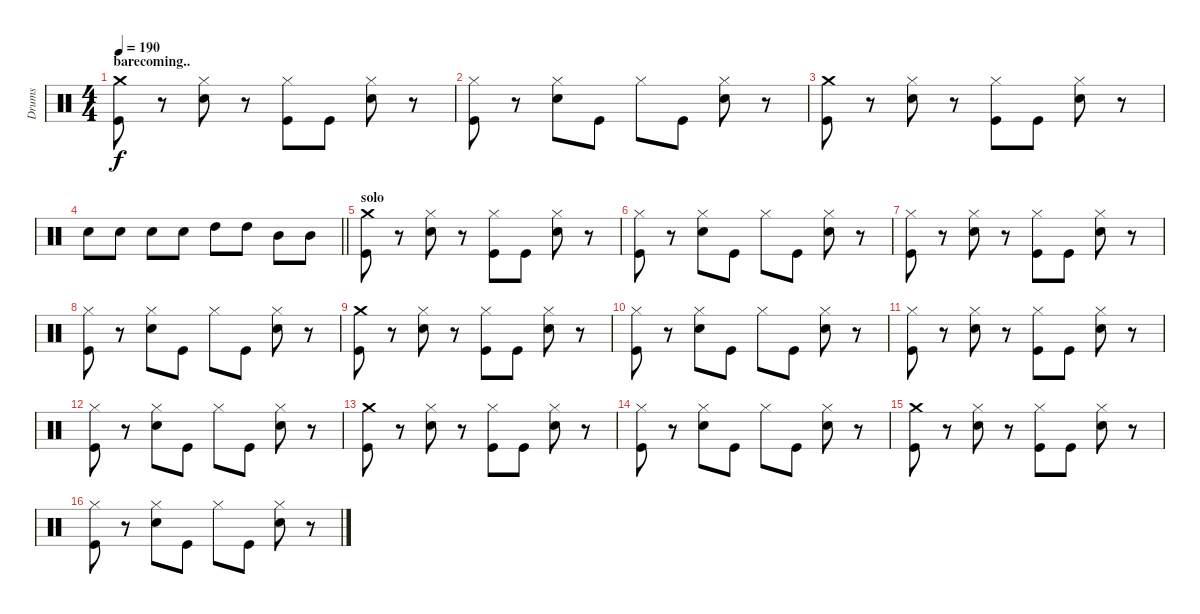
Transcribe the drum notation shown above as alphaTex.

\track ("Drums" "Drums") {instrument percussion}
\staff {score}
\articulation defaults
\ts (4 4)
\section ("" "barecoming..")
\tempo 190
\clef neutral
\ks c
("Crash medium (hit)" "Kick (hit)").8{dy f} r.8 ("Hi-Hat (closed)" "Snare (hit) 2").8 r.8 ("Hi-Hat (closed)" "Kick (hit)").8 "Kick (hit)".8 ("Hi-Hat (closed)" "Snare (hit) 2").8 r.8 |
("Hi-Hat (closed)" "Kick (hit)").8 r.8 ("Hi-Hat (closed)" "Snare (hit) 2").8 "Kick (hit)".8 "Hi-Hat (closed)".8 "Kick (hit)".8 ("Hi-Hat (closed)" "Snare (hit) 2").8 r.8 |
("Crash medium (hit)" "Kick (hit)").8 r.8 ("Hi-Hat (closed)" "Snare (hit) 2").8 r.8 ("Hi-Hat (closed)" "Kick (hit)").8 "Kick (hit)".8 ("Hi-Hat (closed)" "Snare (hit) 2").8 r.8 |
\barLineRight lightlight "Snare (hit) 2".8 "Snare (hit) 2".8 "Snare (hit) 2".8 "Snare (hit) 2".8 "High Tom (hit)".8 "High Tom (hit)".8 "Mid Tom (hit)".8 "Mid Tom (hit)".8
|
\section ("" "solo")
("Crash medium (hit)" "Kick (hit)").8 r.8 ("Hi-Hat (closed)" "Snare (hit) 2").8 r.8 ("Hi-Hat (closed)" "Kick (hit)").8 "Kick (hit)".8 ("Hi-Hat (closed)" "Snare (hit) 2").8 r.8 |
("Hi-Hat (closed)" "Kick (hit)").8 r.8 ("Hi-Hat (closed)" "Snare (hit) 2").8 "Kick (hit)".8 "Hi-Hat (closed)".8 "Kick (hit)".8 ("Hi-Hat (closed)" "Snare (hit) 2").8 r.8 |
("Hi-Hat (closed)" "Kick (hit)").8 r.8 ("Hi-Hat (closed)" "Snare (hit) 2").8 r.8 ("Hi-Hat (closed)" "Kick (hit)").8 "Kick (hit)".8 ("Hi-Hat (closed)" "Snare (hit) 2").8 r.8 |
("Hi-Hat (closed)" "Kick (hit)").8 r.8 ("Hi-Hat (closed)" "Snare (hit) 2").8 "Kick (hit)".8 "Hi-Hat (closed)".8 "Kick (hit)".8 ("Hi-Hat (closed)" "Snare (hit) 2").8 r.8 |
("Crash medium (hit)" "Kick (hit)").8 r.8 ("Hi-Hat (closed)" "Snare (hit) 2").8 r.8 ("Hi-Hat (closed)" "Kick (hit)").8 "Kick (hit)".8 ("Hi-Hat (closed)" "Snare (hit) 2").8 r.8 |
("Hi-Hat (closed)" "Kick (hit)").8 r.8 ("Hi-Hat (closed)" "Snare (hit) 2").8 "Kick (hit)".8 "Hi-Hat (closed)".8 "Kick (hit)".8 ("Hi-Hat (closed)" "Snare (hit) 2").8 r.8 |
("Hi-Hat (closed)" "Kick (hit)").8 r.8 ("Hi-Hat (closed)" "Snare (hit) 2").8 r.8 ("Hi-Hat (closed)" "Kick (hit)").8 "Kick (hit)".8 ("Hi-Hat (closed)" "Snare (hit) 2").8 r.8 |
("Hi-Hat (closed)" "Kick (hit)").8 r.8 ("Hi-Hat (closed)" "Snare (hit) 2").8 "Kick (hit)".8 "Hi-Hat (closed)".8 "Kick (hit)".8 ("Hi-Hat (closed)" "Snare (hit) 2").8 r.8 |
("Crash medium (hit)" "Kick (hit)").8 r.8 ("Hi-Hat (closed)" "Snare (hit) 2").8 r.8 ("Hi-Hat (closed)" "Kick (hit)").8 "Kick (hit)".8 ("Hi-Hat (closed)" "Snare (hit) 2").8 r.8 |
("Hi-Hat (closed)" "Kick (hit)").8 r.8 ("Hi-Hat (closed)" "Snare (hit) 2").8 "Kick (hit)".8 "Hi-Hat (closed)".8 "Kick (hit)".8 ("Hi-Hat (closed)" "Snare (hit) 2").8 r.8 |
("Crash medium (hit)" "Kick (hit)").8 r.8 ("Hi-Hat (closed)" "Snare (hit) 2").8 r.8 ("Hi-Hat (closed)" "Kick (hit)").8 "Kick (hit)".8 ("Hi-Hat (closed)" "Snare (hit) 2").8 r.8 |
("Hi-Hat (closed)" "Kick (hit)").8 r.8 ("Hi-Hat (closed)" "Snare (hit) 2").8 "Kick (hit)".8 "Hi-Hat (closed)".8 "Kick (hit)".8 ("Hi-Hat (closed)" "Snare (hit) 2").8 r.8
